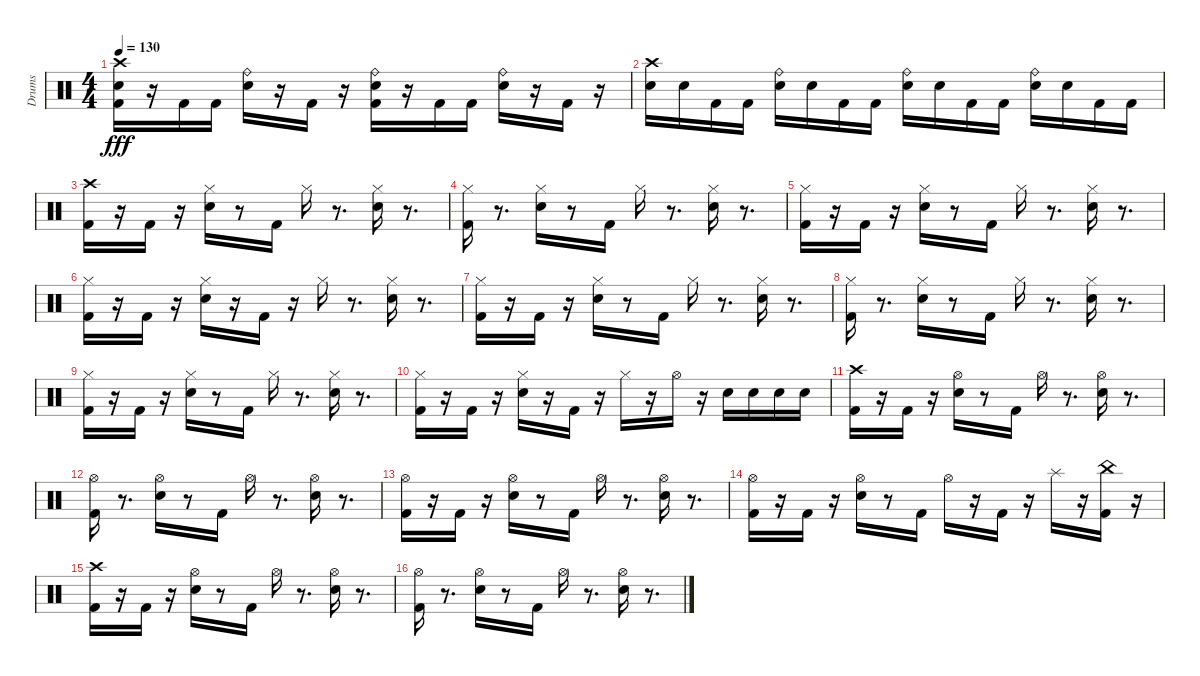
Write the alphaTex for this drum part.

\track ("Drums" "Drums") {instrument percussion}
\staff {score}
\articulation defaults
\ts (4 4)
\tempo 130
\clef neutral
\ks c
("Crash high (hit)" "Electric Snare (hit)" "Kick (hit) 2").16{dy fff} r.16 "Kick (hit) 2".16 "Kick (hit) 2".16 ("Ride (bell)" "Electric Snare (hit)").16 r.16 "Kick (hit) 2".16 r.16 ("Ride (bell)" "Electric Snare (hit)" "Kick (hit) 2").16 r.16 "Kick (hit) 2".16 "Kick (hit) 2".16 ("Ride (bell)" "Electric Snare (hit)").16 r.16 "Kick (hit) 2".16 r.16 |
("Crash high (hit)" "Electric Snare (hit)").16 "Electric Snare (hit)".16 "Kick (hit) 2".16 "Kick (hit) 2".16 ("Ride (bell)" "Electric Snare (hit)").16 "Electric Snare (hit)".16 "Kick (hit) 2".16 "Kick (hit) 2".16 ("Ride (bell)" "Electric Snare (hit)").16 "Electric Snare (hit)".16 "Kick (hit) 2".16 "Kick (hit) 2".16 ("Ride (bell)" "Electric Snare (hit)").16 "Electric Snare (hit)".16 "Kick (hit) 2".16 "Kick (hit) 2".16 |
("Crash high (hit)" "Kick (hit) 2").16 r.16 "Kick (hit) 2".16 r.16 ("Electric Snare (hit)" "Hi-Hat (closed)").16 r.8 "Kick (hit) 2".16 "Hi-Hat (closed)".16 r.8{d} ("Electric Snare (hit)" "Hi-Hat (closed)").16 r.8{d} |
("Hi-Hat (closed)" "Kick (hit) 2").16 r.8{d} ("Hi-Hat (closed)" "Electric Snare (hit)").16 r.8 "Kick (hit) 2".16 "Hi-Hat (closed)".16 r.8{d} ("Electric Snare (hit)" "Hi-Hat (closed)").16 r.8{d} |
("Kick (hit) 2" "Hi-Hat (closed)").16 r.16 "Kick (hit) 2".16 r.16 ("Electric Snare (hit)" "Hi-Hat (closed)").16 r.8 "Kick (hit) 2".16 "Hi-Hat (closed)".16 r.8{d} ("Hi-Hat (closed)" "Electric Snare (hit)").16 r.8{d} |
("Kick (hit) 2" "Hi-Hat (closed)").16 r.16 "Kick (hit) 2".16 r.16 ("Electric Snare (hit)" "Hi-Hat (closed)").16 r.16 "Kick (hit) 2".16 r.16 "Hi-Hat (closed)".16 r.8{d} ("Hi-Hat (closed)" "Electric Snare (hit)").16 r.8{d} |
("Hi-Hat (closed)" "Kick (hit) 2").16 r.16 "Kick (hit) 2".16 r.16 ("Hi-Hat (closed)" "Electric Snare (hit)").16 r.8 "Kick (hit) 2".16 "Hi-Hat (closed)".16 r.8{d} ("Hi-Hat (closed)" "Electric Snare (hit)").16 r.8{d} |
("Kick (hit) 2" "Hi-Hat (closed)").16 r.8{d} ("Electric Snare (hit)" "Hi-Hat (closed)").16 r.8 "Kick (hit) 2".16 "Hi-Hat (closed)".16 r.8{d} ("Hi-Hat (closed)" "Electric Snare (hit)").16 r.8{d} |
("Hi-Hat (closed)" "Kick (hit) 2").16 r.16 "Kick (hit) 2".16 r.16 ("Hi-Hat (closed)" "Electric Snare (hit)").16 r.8 "Kick (hit) 2".16 "Hi-Hat (closed)".16 r.8{d} ("Electric Snare (hit)" "Hi-Hat (closed)").16 r.8{d} |
("Hi-Hat (closed)" "Kick (hit) 2").16 r.16 "Kick (hit) 2".16 r.16 ("Hi-Hat (closed)" "Electric Snare (hit)").16 r.16 "Kick (hit) 2".16 r.16 "Hi-Hat (closed)".16 r.16 "Hi-Hat (open)".16 r.16 "Electric Snare (hit)".16 "Electric Snare (hit)".16 "Electric Snare (hit)".16 "Electric Snare (hit)".16 |
("Crash high (hit)" "Kick (hit) 2").16 r.16 "Kick (hit) 2".16 r.16 ("Hi-Hat (open)" "Electric Snare (hit)").16 r.8 "Kick (hit) 2".16 "Hi-Hat (open)".16 r.8{d} ("Hi-Hat (open)" "Electric Snare (hit)").16 r.8{d} |
("Hi-Hat (open)" "Kick (hit) 2").16 r.8{d} ("Electric Snare (hit)" "Hi-Hat (open)").16 r.8 "Kick (hit) 2".16 "Hi-Hat (open)".16 r.8{d} ("Electric Snare (hit)" "Hi-Hat (open)").16 r.8{d} |
("Hi-Hat (open)" "Kick (hit) 2").16 r.16 "Kick (hit) 2".16 r.16 ("Electric Snare (hit)" "Hi-Hat (open)").16 r.8 "Kick (hit) 2".16 "Hi-Hat (open)".16 r.8{d} ("Electric Snare (hit)" "Hi-Hat (open)").16 r.8{d} |
("Hi-Hat (open)" "Kick (hit) 2").16 r.16 "Kick (hit) 2".16 r.16 ("Electric Snare (hit)" "Hi-Hat (open)").16 r.8 "Kick (hit) 2".16 "Hi-Hat (open)".16 r.16 "Kick (hit) 2".16 r.16 "Splash (hit)".16 r.16 ("Kick (hit) 2" "China (hit)").16 r.16 |
("Kick (hit) 2" "Crash high (hit)").16 r.16 "Kick (hit) 2".16 r.16 ("Electric Snare (hit)" "Hi-Hat (open)").16 r.8 "Kick (hit) 2".16 "Hi-Hat (open)".16 r.8{d} ("Electric Snare (hit)" "Hi-Hat (open)").16 r.8{d} |
("Kick (hit) 2" "Hi-Hat (open)").16 r.8{d} ("Hi-Hat (open)" "Electric Snare (hit)").16 r.8 "Kick (hit) 2".16 "Hi-Hat (open)".16 r.8{d} ("Hi-Hat (open)" "Electric Snare (hit)").16 r.8{d}
